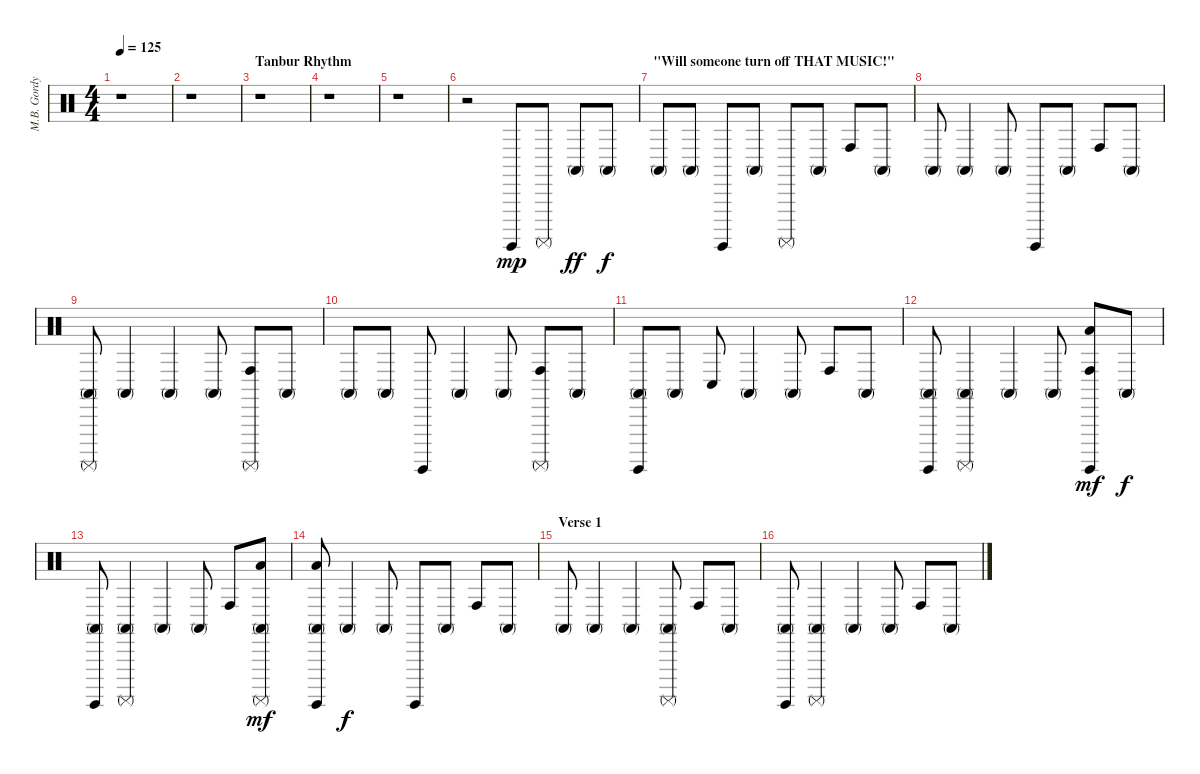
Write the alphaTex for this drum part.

\track ("M.B. Gordy [Percüsion]" "M.B. Gordy") {instrument percussion}
\staff {score}
\articulation defaults
\ts (4 4)
\tempo 125
\clef neutral
\ks c
r.1{dy mp} |
r.1 |
\section ("" "Tanbur Rhythm")
r.1 |
r.1 |
r.1 |
r.2 "Surdo (hit)".8 "Surdo (mute)".8 "Conga high (mute)".8{dy ff} "Conga high (mute)".8{dy f} |
\section ("" "\"Will someone turn off THAT MUSIC!\"")
"Conga high (mute)".8 "Conga high (mute)".8 "Surdo (hit)".8 "Conga high (mute)".8 "Surdo (mute)".8 "Conga high (mute)".8 "Conga high (hit)".8 "Conga high (mute)".8 |
"Conga high (mute)".8 "Conga high (mute)".4 "Conga high (mute)".8 "Surdo (hit)".8 "Conga high (mute)".8 "Conga high (hit)".8 "Conga high (mute)".8 |
("Surdo (mute)" "Conga high (mute)").8 "Conga high (mute)".4 "Conga high (mute)".4 "Conga high (mute)".8 ("Surdo (mute)" "Conga high (hit)").8 "Conga high (mute)".8 |
"Conga high (mute)".8 "Conga high (mute)".8 "Surdo (hit)".8 "Conga high (mute)".4 "Conga high (mute)".8 ("Surdo (mute)" "Conga high (hit)").8 "Conga high (mute)".8 |
("Surdo (hit)" "Conga high (mute)").8 "Conga high (mute)".8 "Conga low (hit)".8 "Conga high (mute)".4 "Conga high (mute)".8 "Conga high (hit)".8 "Conga high (mute)".8 |
("Surdo (hit)" "Conga high (mute)").8 ("Surdo (mute)" "Conga high (mute)").4 "Conga high (mute)".4 "Conga high (mute)".8 ("Surdo (hit)" "Conga high (hit)" "Low Floor Tom (hit)").8{dy mf} "Conga high (mute)".8{dy f} |
("Surdo (hit)" "Conga high (mute)").8 ("Surdo (mute)" "Conga high (mute)").4 "Conga high (mute)".4 "Conga high (mute)".8 "Conga high (hit)".8 ("Surdo (mute)" "Conga high (mute)" "Low Floor Tom (hit)").8{dy mf} |
("Surdo (hit)" "Conga high (mute)" "Low Floor Tom (hit)").8 "Conga high (mute)".4{dy f} "Conga high (mute)".8 "Surdo (hit)".8 "Conga high (mute)".8 "Conga high (hit)".8 "Conga high (mute)".8 |
\section ("" "Verse 1")
"Conga high (mute)".8 "Conga high (mute)".4 "Conga high (mute)".4 ("Surdo (mute)" "Conga high (mute)").8 "Conga high (hit)".8 "Conga high (mute)".8 |
("Surdo (hit)" "Conga high (mute)").8 ("Surdo (mute)" "Conga high (mute)").4 "Conga high (mute)".4 "Conga high (mute)".8 "Conga high (hit)".8 "Conga high (mute)".8
